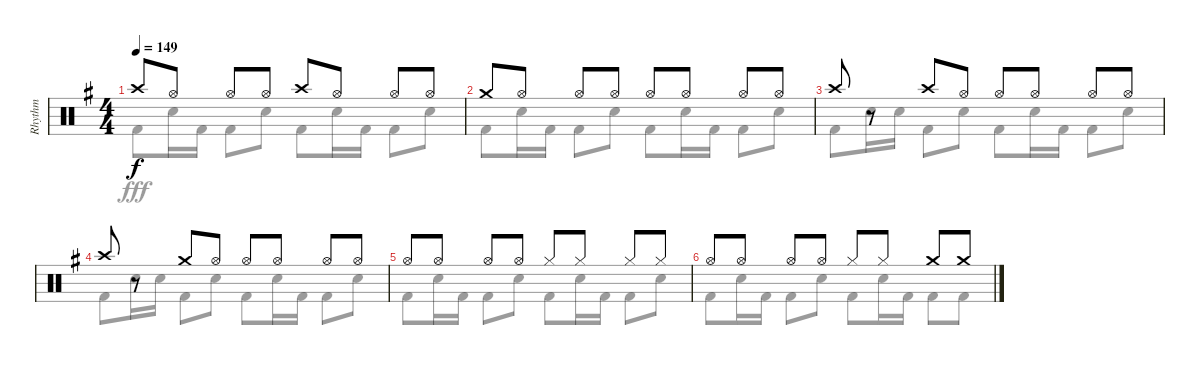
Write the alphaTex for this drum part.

\track ("Rhythm" "Rhythm") {instrument percussion}
\staff {score}
\articulation defaults
\voice
\ts (4 4)
\tempo 149
\clef neutral
\ks eminor "Crash high (hit)".8{dy f} "Hi-Hat (open)".8 "Hi-Hat (open)".8 "Hi-Hat (open)".8 "Crash high (hit)".8 "Hi-Hat (open)".8 "Hi-Hat (open)".8 "Hi-Hat (open)".8
|
"Crash medium (hit)".8 "Hi-Hat (open)".8 "Hi-Hat (open)".8 "Hi-Hat (open)".8 "Hi-Hat (open)".8 "Hi-Hat (open)".8 "Hi-Hat (open)".8 "Hi-Hat (open)".8 |
"Crash high (hit)".8 r.8 "Crash high (hit)".8 "Hi-Hat (open)".8 "Hi-Hat (open)".8 "Hi-Hat (open)".8 "Hi-Hat (open)".8 "Hi-Hat (open)".8 |
"Crash high (hit)".8 r.8 "Crash medium (hit)".8 "Hi-Hat (open)".8 "Hi-Hat (open)".8 "Hi-Hat (open)".8 "Hi-Hat (open)".8 "Hi-Hat (open)".8 |
"Hi-Hat (open)".8 "Hi-Hat (open)".8 "Hi-Hat (open)".8 "Hi-Hat (open)".8 "Hi-Hat (closed)".8 "Hi-Hat (closed)".8 "Hi-Hat (closed)".8 "Hi-Hat (closed)".8 |
"Hi-Hat (open)".8 "Hi-Hat (open)".8 "Hi-Hat (open)".8 "Hi-Hat (open)".8 "Hi-Hat (closed)".8 "Hi-Hat (closed)".8 "Crash medium (hit)".8 "Crash medium (hit)".8
\voice
\clef neutral
\ottava regular
\simile none
\ks eminor "Kick (hit) 2".8{dy fff} "Snare (hit) 2".16 "Kick (hit) 2".16 "Kick (hit) 2".8 "Snare (hit) 2".8 "Kick (hit) 2".8 "Snare (hit) 2".16 "Kick (hit) 2".16 "Kick (hit) 2".8 "Snare (hit) 2".8
|
"Kick (hit) 2".8 "Snare (hit) 2".16 "Kick (hit) 2".16 "Kick (hit) 2".8 "Snare (hit) 2".8 "Kick (hit) 2".8 "Snare (hit) 2".16 "Kick (hit) 2".16 "Kick (hit) 2".8 "Snare (hit) 2".8 |
"Kick (hit) 2".8 "Snare (hit) 2".16 "Snare (hit) 2".16 "Kick (hit) 2".8 "Snare (hit) 2".8 "Kick (hit) 2".8 "Snare (hit) 2".16 "Kick (hit) 2".16 "Kick (hit) 2".8 "Snare (hit) 2".8 |
"Kick (hit) 2".8 "Snare (hit) 2".16 "Snare (hit) 2".16 "Kick (hit) 2".8 "Snare (hit) 2".8 "Kick (hit) 2".8 "Snare (hit) 2".16 "Kick (hit) 2".16 "Kick (hit) 2".8 "Snare (hit) 2".8 |
"Kick (hit) 2".8 "Snare (hit) 2".16 "Kick (hit) 2".16 "Kick (hit) 2".8 "Snare (hit) 2".8 "Kick (hit) 2".8 "Snare (hit) 2".16 "Kick (hit) 2".16 "Kick (hit) 2".8 "Snare (hit) 2".8 |
"Kick (hit) 2".8 "Snare (hit) 2".16 "Kick (hit) 2".16 "Kick (hit) 2".8 "Snare (hit) 2".8 "Kick (hit) 2".8 "Snare (hit) 2".16 "Kick (hit) 2".16 "Kick (hit) 2".8 "Kick (hit) 2".8
